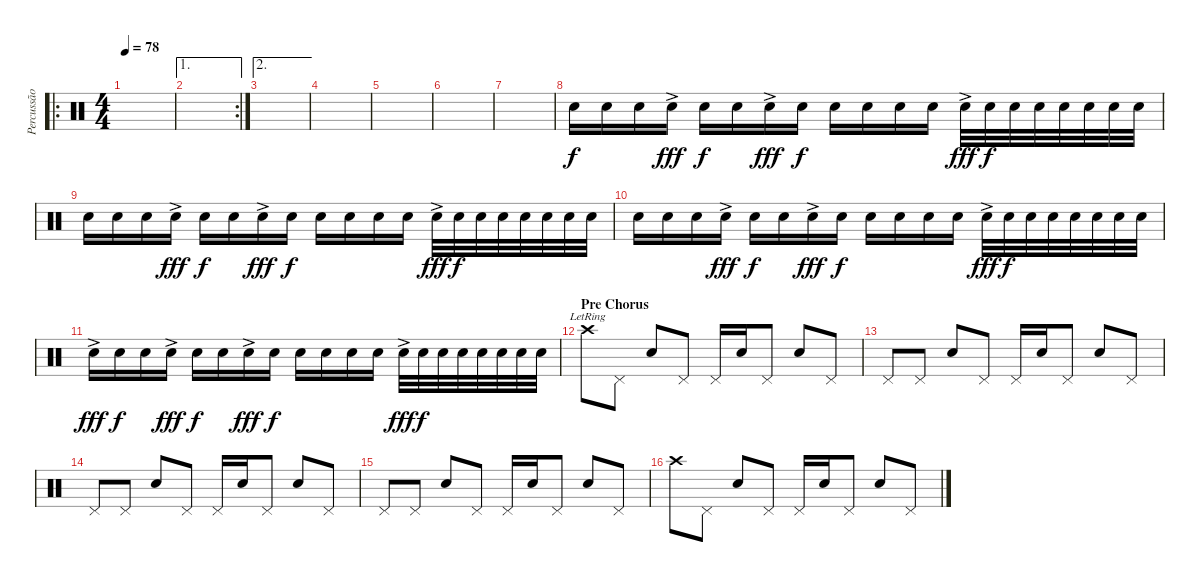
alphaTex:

\track ("Percussão" "Percussão") {instrument percussion}
\staff {score}
\articulation defaults
\ro
\ts (4 4)
\tempo 78
\clef neutral
\ks c
|
\ae 1
\rc 2
|
\ae 2
|
|
|
|
|
"Electric Snare (hit)".16 "Electric Snare (hit)".16 "Electric Snare (hit)".16 "Electric Snare (hit)"{ac}.16{dy fff} "Electric Snare (hit)".16{dy f} "Electric Snare (hit)".16 "Electric Snare (hit)"{ac}.16{dy fff} "Electric Snare (hit)".16{dy f} "Electric Snare (hit)".16 "Electric Snare (hit)".16 "Electric Snare (hit)".16 "Electric Snare (hit)".16 "Electric Snare (hit)"{ac}.32{dy fff} "Electric Snare (hit)".32{dy f} "Electric Snare (hit)".32 "Electric Snare (hit)".32 "Electric Snare (hit)".32 "Electric Snare (hit)".32 "Electric Snare (hit)".32 "Electric Snare (hit)".32 |
"Electric Snare (hit)".16 "Electric Snare (hit)".16 "Electric Snare (hit)".16 "Electric Snare (hit)"{ac}.16{dy fff} "Electric Snare (hit)".16{dy f} "Electric Snare (hit)".16 "Electric Snare (hit)"{ac}.16{dy fff} "Electric Snare (hit)".16{dy f} "Electric Snare (hit)".16 "Electric Snare (hit)".16 "Electric Snare (hit)".16 "Electric Snare (hit)".16 "Electric Snare (hit)"{ac}.32{dy fff} "Electric Snare (hit)".32{dy f} "Electric Snare (hit)".32 "Electric Snare (hit)".32 "Electric Snare (hit)".32 "Electric Snare (hit)".32 "Electric Snare (hit)".32 "Electric Snare (hit)".32 |
"Electric Snare (hit)".16 "Electric Snare (hit)".16 "Electric Snare (hit)".16 "Electric Snare (hit)"{ac}.16{dy fff} "Electric Snare (hit)".16{dy f} "Electric Snare (hit)".16 "Electric Snare (hit)"{ac}.16{dy fff} "Electric Snare (hit)".16{dy f} "Electric Snare (hit)".16 "Electric Snare (hit)".16 "Electric Snare (hit)".16 "Electric Snare (hit)".16 "Electric Snare (hit)"{ac}.32{dy fff} "Electric Snare (hit)".32{dy f} "Electric Snare (hit)".32 "Electric Snare (hit)".32 "Electric Snare (hit)".32 "Electric Snare (hit)".32 "Electric Snare (hit)".32 "Electric Snare (hit)".32 |
"Electric Snare (hit)"{ac}.16{dy fff} "Electric Snare (hit)".16{dy f} "Electric Snare (hit)".16 "Electric Snare (hit)"{ac}.16{dy fff} "Electric Snare (hit)".16{dy f} "Electric Snare (hit)".16 "Electric Snare (hit)"{ac}.16{dy fff} "Electric Snare (hit)".16{dy f} "Electric Snare (hit)".16 "Electric Snare (hit)".16 "Electric Snare (hit)".16 "Electric Snare (hit)".16 "Electric Snare (hit)"{ac}.32{dy fff} "Electric Snare (hit)".32{dy f} "Electric Snare (hit)".32 "Electric Snare (hit)".32 "Electric Snare (hit)".32 "Electric Snare (hit)".32 "Electric Snare (hit)".32 "Electric Snare (hit)".32 |
\section ("" "Pre Chorus")
"Crash high (hit)"{lr}.8 "Pedal Hi-Hat (hit)".8 "Electric Snare (hit)".8 "Pedal Hi-Hat (hit)".8 "Pedal Hi-Hat (hit)".16 "Electric Snare (hit)".16 "Pedal Hi-Hat (hit)".8 "Electric Snare (hit)".8 "Pedal Hi-Hat (hit)".8 |
"Pedal Hi-Hat (hit)".8 "Pedal Hi-Hat (hit)".8 "Electric Snare (hit)".8 "Pedal Hi-Hat (hit)".8 "Pedal Hi-Hat (hit)".16 "Electric Snare (hit)".16 "Pedal Hi-Hat (hit)".8 "Electric Snare (hit)".8 "Pedal Hi-Hat (hit)".8 |
"Pedal Hi-Hat (hit)".8 "Pedal Hi-Hat (hit)".8 "Electric Snare (hit)".8 "Pedal Hi-Hat (hit)".8 "Pedal Hi-Hat (hit)".16 "Electric Snare (hit)".16 "Pedal Hi-Hat (hit)".8 "Electric Snare (hit)".8 "Pedal Hi-Hat (hit)".8 |
"Pedal Hi-Hat (hit)".8 "Pedal Hi-Hat (hit)".8 "Electric Snare (hit)".8 "Pedal Hi-Hat (hit)".8 "Pedal Hi-Hat (hit)".16 "Electric Snare (hit)".16 "Pedal Hi-Hat (hit)".8 "Electric Snare (hit)".8 "Pedal Hi-Hat (hit)".8 |
"Crash high (hit)".8 "Pedal Hi-Hat (hit)".8 "Electric Snare (hit)".8 "Pedal Hi-Hat (hit)".8 "Pedal Hi-Hat (hit)".16 "Electric Snare (hit)".16 "Pedal Hi-Hat (hit)".8 "Electric Snare (hit)".8 "Pedal Hi-Hat (hit)".8
